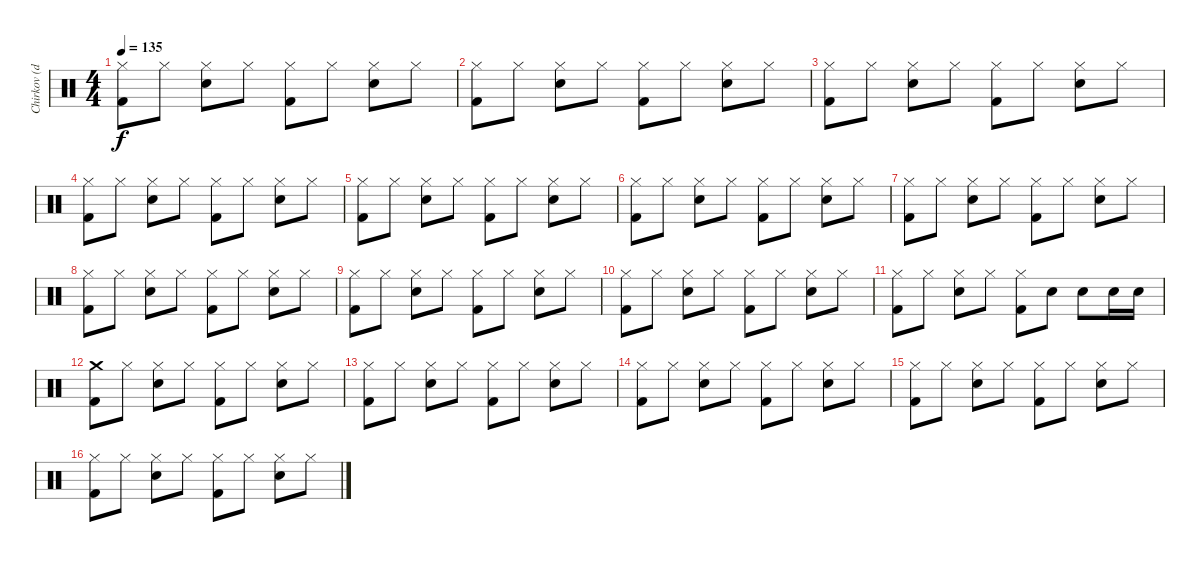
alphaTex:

\track ("Chirkov (drums)" "Chirkov (d") {instrument percussion}
\staff {score}
\articulation defaults
\ts (4 4)
\tempo 135
\clef neutral
\ks c
("Hi-Hat (closed)" "Kick (hit) 2").8{dy f} "Hi-Hat (closed)".8 ("Hi-Hat (closed)" "Snare (hit) 2").8 "Hi-Hat (closed)".8 ("Hi-Hat (closed)" "Kick (hit) 2").8 "Hi-Hat (closed)".8 ("Hi-Hat (closed)" "Snare (hit) 2").8 "Hi-Hat (closed)".8 |
("Hi-Hat (closed)" "Kick (hit) 2").8 "Hi-Hat (closed)".8 ("Hi-Hat (closed)" "Snare (hit) 2").8 "Hi-Hat (closed)".8 ("Hi-Hat (closed)" "Kick (hit) 2").8 "Hi-Hat (closed)".8 ("Hi-Hat (closed)" "Snare (hit) 2").8 "Hi-Hat (closed)".8 |
("Hi-Hat (closed)" "Kick (hit) 2").8 "Hi-Hat (closed)".8 ("Hi-Hat (closed)" "Snare (hit) 2").8 "Hi-Hat (closed)".8 ("Hi-Hat (closed)" "Kick (hit) 2").8 "Hi-Hat (closed)".8 ("Hi-Hat (closed)" "Snare (hit) 2").8 "Hi-Hat (closed)".8 |
("Hi-Hat (closed)" "Kick (hit) 2").8 "Hi-Hat (closed)".8 ("Hi-Hat (closed)" "Snare (hit) 2").8 "Hi-Hat (closed)".8 ("Hi-Hat (closed)" "Kick (hit) 2").8 "Hi-Hat (closed)".8 ("Hi-Hat (closed)" "Snare (hit) 2").8 "Hi-Hat (closed)".8 |
("Hi-Hat (closed)" "Kick (hit) 2").8 "Hi-Hat (closed)".8 ("Hi-Hat (closed)" "Snare (hit) 2").8 "Hi-Hat (closed)".8 ("Hi-Hat (closed)" "Kick (hit) 2").8 "Hi-Hat (closed)".8 ("Hi-Hat (closed)" "Snare (hit) 2").8 "Hi-Hat (closed)".8 |
("Hi-Hat (closed)" "Kick (hit) 2").8 "Hi-Hat (closed)".8 ("Hi-Hat (closed)" "Snare (hit) 2").8 "Hi-Hat (closed)".8 ("Hi-Hat (closed)" "Kick (hit) 2").8 "Hi-Hat (closed)".8 ("Hi-Hat (closed)" "Snare (hit) 2").8 "Hi-Hat (closed)".8 |
("Hi-Hat (closed)" "Kick (hit) 2").8 "Hi-Hat (closed)".8 ("Hi-Hat (closed)" "Snare (hit) 2").8 "Hi-Hat (closed)".8 ("Hi-Hat (closed)" "Kick (hit) 2").8 "Hi-Hat (closed)".8 ("Hi-Hat (closed)" "Snare (hit) 2").8 "Hi-Hat (closed)".8 |
("Hi-Hat (closed)" "Kick (hit) 2").8 "Hi-Hat (closed)".8 ("Hi-Hat (closed)" "Snare (hit) 2").8 "Hi-Hat (closed)".8 ("Hi-Hat (closed)" "Kick (hit) 2").8 "Hi-Hat (closed)".8 ("Hi-Hat (closed)" "Snare (hit) 2").8 "Hi-Hat (closed)".8 |
("Hi-Hat (closed)" "Kick (hit) 2").8 "Hi-Hat (closed)".8 ("Hi-Hat (closed)" "Snare (hit) 2").8 "Hi-Hat (closed)".8 ("Hi-Hat (closed)" "Kick (hit) 2").8 "Hi-Hat (closed)".8 ("Hi-Hat (closed)" "Snare (hit) 2").8 "Hi-Hat (closed)".8 |
("Hi-Hat (closed)" "Kick (hit) 2").8 "Hi-Hat (closed)".8 ("Hi-Hat (closed)" "Snare (hit) 2").8 "Hi-Hat (closed)".8 ("Hi-Hat (closed)" "Kick (hit) 2").8 "Hi-Hat (closed)".8 ("Hi-Hat (closed)" "Snare (hit) 2").8 "Hi-Hat (closed)".8 |
("Hi-Hat (closed)" "Kick (hit) 2").8 "Hi-Hat (closed)".8 ("Hi-Hat (closed)" "Snare (hit) 2").8 "Hi-Hat (closed)".8 ("Hi-Hat (closed)" "Kick (hit) 2").8 "Snare (hit) 2".8 "Snare (hit) 2".8 "Snare (hit) 2".16 "Snare (hit) 2".16 |
("Crash medium (hit)" "Kick (hit) 2").8 "Hi-Hat (closed)".8 ("Hi-Hat (closed)" "Snare (hit) 2").8 "Hi-Hat (closed)".8 ("Hi-Hat (closed)" "Kick (hit) 2").8 "Hi-Hat (closed)".8 ("Hi-Hat (closed)" "Snare (hit) 2").8 "Hi-Hat (closed)".8 |
("Hi-Hat (closed)" "Kick (hit) 2").8 "Hi-Hat (closed)".8 ("Hi-Hat (closed)" "Snare (hit) 2").8 "Hi-Hat (closed)".8 ("Hi-Hat (closed)" "Kick (hit) 2").8 "Hi-Hat (closed)".8 ("Hi-Hat (closed)" "Snare (hit) 2").8 "Hi-Hat (closed)".8 |
("Hi-Hat (closed)" "Kick (hit) 2").8 "Hi-Hat (closed)".8 ("Hi-Hat (closed)" "Snare (hit) 2").8 "Hi-Hat (closed)".8 ("Hi-Hat (closed)" "Kick (hit) 2").8 "Hi-Hat (closed)".8 ("Hi-Hat (closed)" "Snare (hit) 2").8 "Hi-Hat (closed)".8 |
("Hi-Hat (closed)" "Kick (hit) 2").8 "Hi-Hat (closed)".8 ("Hi-Hat (closed)" "Snare (hit) 2").8 "Hi-Hat (closed)".8 ("Hi-Hat (closed)" "Kick (hit) 2").8 "Hi-Hat (closed)".8 ("Hi-Hat (closed)" "Snare (hit) 2").8 "Hi-Hat (closed)".8 |
("Hi-Hat (closed)" "Kick (hit) 2").8 "Hi-Hat (closed)".8 ("Hi-Hat (closed)" "Snare (hit) 2").8 "Hi-Hat (closed)".8 ("Hi-Hat (closed)" "Kick (hit) 2").8 "Hi-Hat (closed)".8 ("Hi-Hat (closed)" "Snare (hit) 2").8 "Hi-Hat (closed)".8
